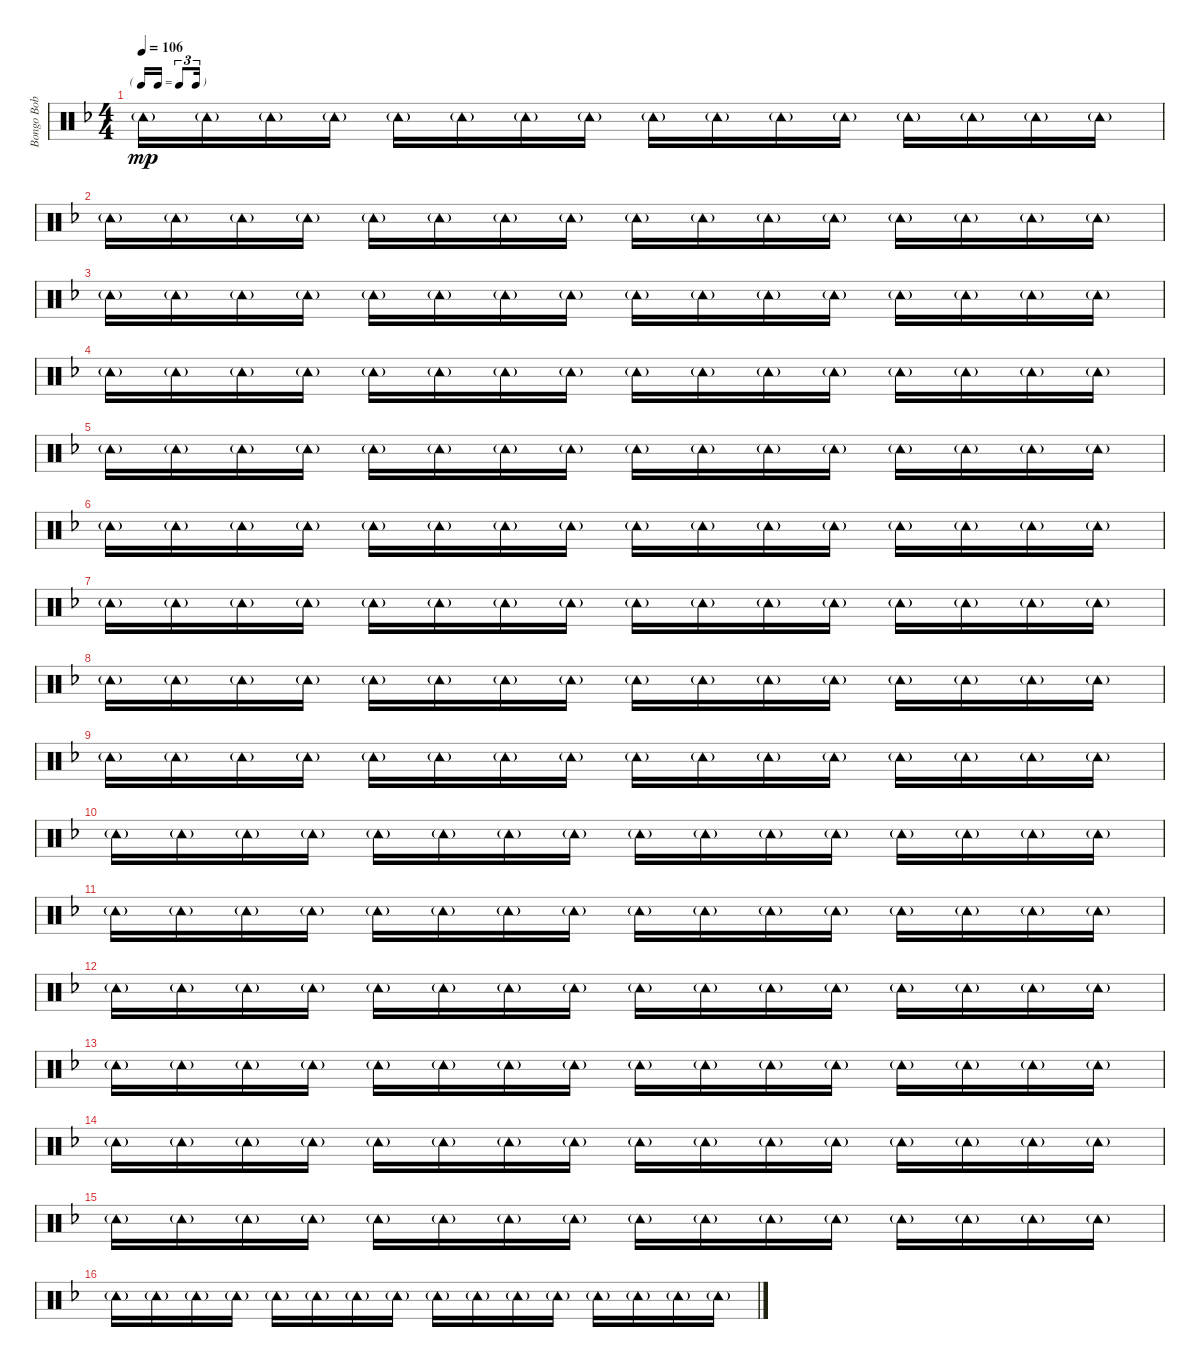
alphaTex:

\track ("Bongo Bob Smith (Tambourine)" "Bongo Bob ") {instrument percussion}
\staff {score}
\articulation defaults
\ts (4 4)
\tf triplet16th
\tempo 106
\clef neutral
\ks f "Tambourine (hit)"{g}.16{dy mp} "Tambourine (hit)"{g}.16 "Tambourine (hit)"{g}.16 "Tambourine (hit)"{g}.16 "Tambourine (hit)"{g}.16 "Tambourine (hit)"{g}.16 "Tambourine (hit)"{g}.16 "Tambourine (hit)"{g}.16 "Tambourine (hit)"{g}.16 "Tambourine (hit)"{g}.16 "Tambourine (hit)"{g}.16 "Tambourine (hit)"{g}.16 "Tambourine (hit)"{g}.16 "Tambourine (hit)"{g}.16 "Tambourine (hit)"{g}.16 "Tambourine (hit)"{g}.16
|
"Tambourine (hit)"{g}.16 "Tambourine (hit)"{g}.16 "Tambourine (hit)"{g}.16 "Tambourine (hit)"{g}.16 "Tambourine (hit)"{g}.16 "Tambourine (hit)"{g}.16 "Tambourine (hit)"{g}.16 "Tambourine (hit)"{g}.16 "Tambourine (hit)"{g}.16 "Tambourine (hit)"{g}.16 "Tambourine (hit)"{g}.16 "Tambourine (hit)"{g}.16 "Tambourine (hit)"{g}.16 "Tambourine (hit)"{g}.16 "Tambourine (hit)"{g}.16 "Tambourine (hit)"{g}.16 |
"Tambourine (hit)"{g}.16 "Tambourine (hit)"{g}.16 "Tambourine (hit)"{g}.16 "Tambourine (hit)"{g}.16 "Tambourine (hit)"{g}.16 "Tambourine (hit)"{g}.16 "Tambourine (hit)"{g}.16 "Tambourine (hit)"{g}.16 "Tambourine (hit)"{g}.16 "Tambourine (hit)"{g}.16 "Tambourine (hit)"{g}.16 "Tambourine (hit)"{g}.16 "Tambourine (hit)"{g}.16 "Tambourine (hit)"{g}.16 "Tambourine (hit)"{g}.16 "Tambourine (hit)"{g}.16 |
"Tambourine (hit)"{g}.16 "Tambourine (hit)"{g}.16 "Tambourine (hit)"{g}.16 "Tambourine (hit)"{g}.16 "Tambourine (hit)"{g}.16 "Tambourine (hit)"{g}.16 "Tambourine (hit)"{g}.16 "Tambourine (hit)"{g}.16 "Tambourine (hit)"{g}.16 "Tambourine (hit)"{g}.16 "Tambourine (hit)"{g}.16 "Tambourine (hit)"{g}.16 "Tambourine (hit)"{g}.16 "Tambourine (hit)"{g}.16 "Tambourine (hit)"{g}.16 "Tambourine (hit)"{g}.16 |
"Tambourine (hit)"{g}.16 "Tambourine (hit)"{g}.16 "Tambourine (hit)"{g}.16 "Tambourine (hit)"{g}.16 "Tambourine (hit)"{g}.16 "Tambourine (hit)"{g}.16 "Tambourine (hit)"{g}.16 "Tambourine (hit)"{g}.16 "Tambourine (hit)"{g}.16 "Tambourine (hit)"{g}.16 "Tambourine (hit)"{g}.16 "Tambourine (hit)"{g}.16 "Tambourine (hit)"{g}.16 "Tambourine (hit)"{g}.16 "Tambourine (hit)"{g}.16 "Tambourine (hit)"{g}.16 |
"Tambourine (hit)"{g}.16 "Tambourine (hit)"{g}.16 "Tambourine (hit)"{g}.16 "Tambourine (hit)"{g}.16 "Tambourine (hit)"{g}.16 "Tambourine (hit)"{g}.16 "Tambourine (hit)"{g}.16 "Tambourine (hit)"{g}.16 "Tambourine (hit)"{g}.16 "Tambourine (hit)"{g}.16 "Tambourine (hit)"{g}.16 "Tambourine (hit)"{g}.16 "Tambourine (hit)"{g}.16 "Tambourine (hit)"{g}.16 "Tambourine (hit)"{g}.16 "Tambourine (hit)"{g}.16 |
"Tambourine (hit)"{g}.16 "Tambourine (hit)"{g}.16 "Tambourine (hit)"{g}.16 "Tambourine (hit)"{g}.16 "Tambourine (hit)"{g}.16 "Tambourine (hit)"{g}.16 "Tambourine (hit)"{g}.16 "Tambourine (hit)"{g}.16 "Tambourine (hit)"{g}.16 "Tambourine (hit)"{g}.16 "Tambourine (hit)"{g}.16 "Tambourine (hit)"{g}.16 "Tambourine (hit)"{g}.16 "Tambourine (hit)"{g}.16 "Tambourine (hit)"{g}.16 "Tambourine (hit)"{g}.16 |
"Tambourine (hit)"{g}.16 "Tambourine (hit)"{g}.16 "Tambourine (hit)"{g}.16 "Tambourine (hit)"{g}.16 "Tambourine (hit)"{g}.16 "Tambourine (hit)"{g}.16 "Tambourine (hit)"{g}.16 "Tambourine (hit)"{g}.16 "Tambourine (hit)"{g}.16 "Tambourine (hit)"{g}.16 "Tambourine (hit)"{g}.16 "Tambourine (hit)"{g}.16 "Tambourine (hit)"{g}.16 "Tambourine (hit)"{g}.16 "Tambourine (hit)"{g}.16 "Tambourine (hit)"{g}.16 |
"Tambourine (hit)"{g}.16 "Tambourine (hit)"{g}.16 "Tambourine (hit)"{g}.16 "Tambourine (hit)"{g}.16 "Tambourine (hit)"{g}.16 "Tambourine (hit)"{g}.16 "Tambourine (hit)"{g}.16 "Tambourine (hit)"{g}.16 "Tambourine (hit)"{g}.16 "Tambourine (hit)"{g}.16 "Tambourine (hit)"{g}.16 "Tambourine (hit)"{g}.16 "Tambourine (hit)"{g}.16 "Tambourine (hit)"{g}.16 "Tambourine (hit)"{g}.16 "Tambourine (hit)"{g}.16 |
"Tambourine (hit)"{g}.16 "Tambourine (hit)"{g}.16 "Tambourine (hit)"{g}.16 "Tambourine (hit)"{g}.16 "Tambourine (hit)"{g}.16 "Tambourine (hit)"{g}.16 "Tambourine (hit)"{g}.16 "Tambourine (hit)"{g}.16 "Tambourine (hit)"{g}.16 "Tambourine (hit)"{g}.16 "Tambourine (hit)"{g}.16 "Tambourine (hit)"{g}.16 "Tambourine (hit)"{g}.16 "Tambourine (hit)"{g}.16 "Tambourine (hit)"{g}.16 "Tambourine (hit)"{g}.16 |
"Tambourine (hit)"{g}.16 "Tambourine (hit)"{g}.16 "Tambourine (hit)"{g}.16 "Tambourine (hit)"{g}.16 "Tambourine (hit)"{g}.16 "Tambourine (hit)"{g}.16 "Tambourine (hit)"{g}.16 "Tambourine (hit)"{g}.16 "Tambourine (hit)"{g}.16 "Tambourine (hit)"{g}.16 "Tambourine (hit)"{g}.16 "Tambourine (hit)"{g}.16 "Tambourine (hit)"{g}.16 "Tambourine (hit)"{g}.16 "Tambourine (hit)"{g}.16 "Tambourine (hit)"{g}.16 |
"Tambourine (hit)"{g}.16 "Tambourine (hit)"{g}.16 "Tambourine (hit)"{g}.16 "Tambourine (hit)"{g}.16 "Tambourine (hit)"{g}.16 "Tambourine (hit)"{g}.16 "Tambourine (hit)"{g}.16 "Tambourine (hit)"{g}.16 "Tambourine (hit)"{g}.16 "Tambourine (hit)"{g}.16 "Tambourine (hit)"{g}.16 "Tambourine (hit)"{g}.16 "Tambourine (hit)"{g}.16 "Tambourine (hit)"{g}.16 "Tambourine (hit)"{g}.16 "Tambourine (hit)"{g}.16 |
"Tambourine (hit)"{g}.16 "Tambourine (hit)"{g}.16 "Tambourine (hit)"{g}.16 "Tambourine (hit)"{g}.16 "Tambourine (hit)"{g}.16 "Tambourine (hit)"{g}.16 "Tambourine (hit)"{g}.16 "Tambourine (hit)"{g}.16 "Tambourine (hit)"{g}.16 "Tambourine (hit)"{g}.16 "Tambourine (hit)"{g}.16 "Tambourine (hit)"{g}.16 "Tambourine (hit)"{g}.16 "Tambourine (hit)"{g}.16 "Tambourine (hit)"{g}.16 "Tambourine (hit)"{g}.16 |
"Tambourine (hit)"{g}.16 "Tambourine (hit)"{g}.16 "Tambourine (hit)"{g}.16 "Tambourine (hit)"{g}.16 "Tambourine (hit)"{g}.16 "Tambourine (hit)"{g}.16 "Tambourine (hit)"{g}.16 "Tambourine (hit)"{g}.16 "Tambourine (hit)"{g}.16 "Tambourine (hit)"{g}.16 "Tambourine (hit)"{g}.16 "Tambourine (hit)"{g}.16 "Tambourine (hit)"{g}.16 "Tambourine (hit)"{g}.16 "Tambourine (hit)"{g}.16 "Tambourine (hit)"{g}.16 |
"Tambourine (hit)"{g}.16 "Tambourine (hit)"{g}.16 "Tambourine (hit)"{g}.16 "Tambourine (hit)"{g}.16 "Tambourine (hit)"{g}.16 "Tambourine (hit)"{g}.16 "Tambourine (hit)"{g}.16 "Tambourine (hit)"{g}.16 "Tambourine (hit)"{g}.16 "Tambourine (hit)"{g}.16 "Tambourine (hit)"{g}.16 "Tambourine (hit)"{g}.16 "Tambourine (hit)"{g}.16 "Tambourine (hit)"{g}.16 "Tambourine (hit)"{g}.16 "Tambourine (hit)"{g}.16 |
"Tambourine (hit)"{g}.16 "Tambourine (hit)"{g}.16 "Tambourine (hit)"{g}.16 "Tambourine (hit)"{g}.16 "Tambourine (hit)"{g}.16 "Tambourine (hit)"{g}.16 "Tambourine (hit)"{g}.16 "Tambourine (hit)"{g}.16 "Tambourine (hit)"{g}.16 "Tambourine (hit)"{g}.16 "Tambourine (hit)"{g}.16 "Tambourine (hit)"{g}.16 "Tambourine (hit)"{g}.16 "Tambourine (hit)"{g}.16 "Tambourine (hit)"{g}.16 "Tambourine (hit)"{g}.16
